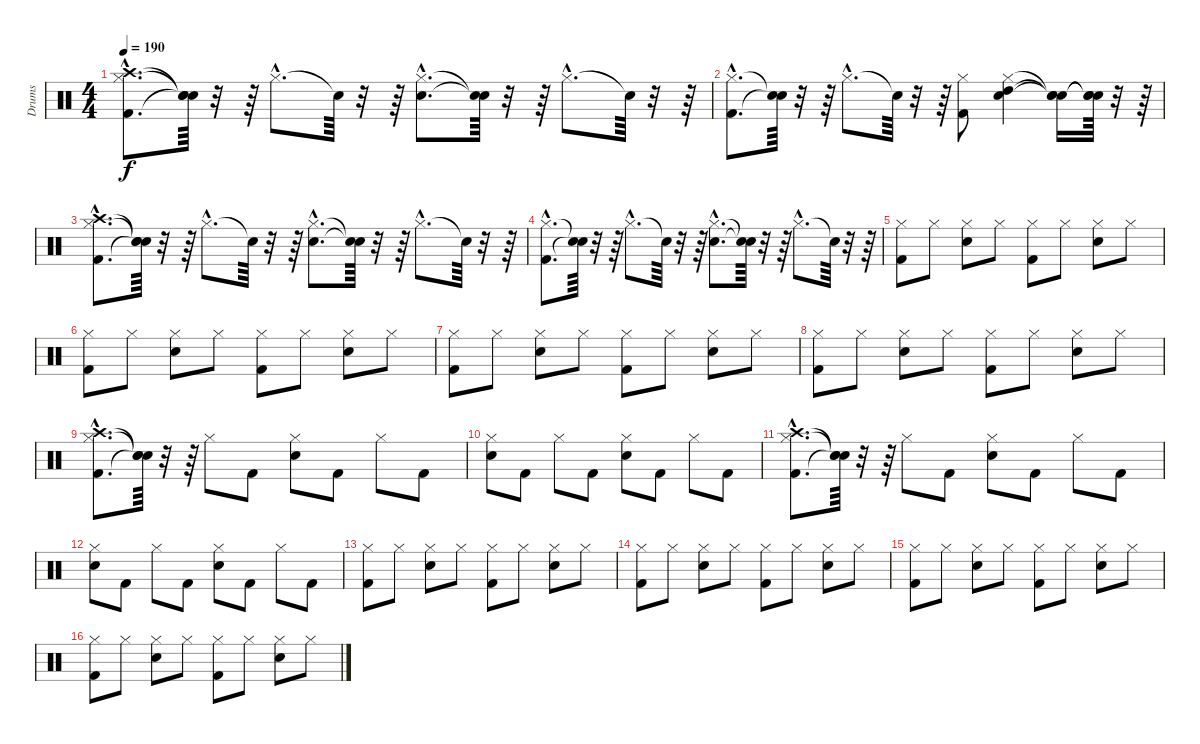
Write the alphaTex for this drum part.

\track ("Drums" "Drums") {instrument percussion}
\staff {score}
\articulation defaults
\ts (4 4)
\tempo 190
\clef neutral
\ks c
("Kick (hit) 2"{hac} "Hi-Hat (closed)"{hac} "Crash high (hit)"{hac}).8{d dy f} ("Snare (hit)"{t} "Snare (hit)"{t} "Snare (hit)"{t}).64 r.32 r.64 "Hi-Hat (closed)"{hac}.8{d} "Snare (hit)"{t}.64 r.32 r.64 ("Snare (hit) 2"{hac} "Hi-Hat (closed)"{hac}).8{d} ("Snare (hit)"{t} "Snare (hit)"{t}).64 r.32 r.64 "Hi-Hat (closed)"{hac}.8{d} "Snare (hit)"{t}.64 r.32 r.64 |
("Kick (hit) 2"{hac} "Hi-Hat (closed)"{hac}).8{d} ("Snare (hit)"{t} "Snare (hit)"{t}).64 r.32 r.64 "Hi-Hat (closed)"{hac}.8{d} "Snare (hit)"{t}.64 r.32 r.64 ("Kick (hit) 2" "Hi-Hat (closed)").8 ("Snare (hit) 2" "Hi-Hat (closed)" "High Tom (hit)").4 ("Snare (hit)"{t} "Snare (hit)"{t} "Snare (hit)"{t}).16 ("Snare (hit)"{t} "Snare (hit)"{t} "Snare (hit)"{t}).64 r.32 r.64 |
("Kick (hit) 2"{hac} "Hi-Hat (closed)"{hac} "Crash high (hit)"{hac}).8{d} ("Snare (hit)"{t} "Snare (hit)"{t} "Snare (hit)"{t}).64 r.32 r.64 "Hi-Hat (closed)"{hac}.8{d} "Snare (hit)"{t}.64 r.32 r.64 ("Snare (hit) 2"{hac} "Hi-Hat (closed)"{hac}).8{d} ("Snare (hit)"{t} "Snare (hit)"{t}).64 r.32 r.64 "Hi-Hat (closed)"{hac}.8{d} "Snare (hit)"{t}.64 r.32 r.64 |
("Kick (hit) 2"{hac} "Hi-Hat (closed)"{hac}).8{d} ("Snare (hit)"{t} "Snare (hit)"{t}).64 r.32 r.64 "Hi-Hat (closed)"{hac}.8{d} "Snare (hit)"{t}.64 r.32 r.64 ("Snare (hit) 2"{hac} "Hi-Hat (closed)"{hac}).8{d} ("Snare (hit)"{t} "Snare (hit)"{t}).64 r.32 r.64 "Hi-Hat (closed)"{hac}.8{d} "Snare (hit)"{t}.64 r.32 r.64 |
("Kick (hit) 2" "Hi-Hat (closed)").8 "Hi-Hat (closed)".8 ("Snare (hit) 2" "Hi-Hat (closed)").8 "Hi-Hat (closed)".8 ("Kick (hit) 2" "Hi-Hat (closed)").8 "Hi-Hat (closed)".8 ("Snare (hit) 2" "Hi-Hat (closed)").8 "Hi-Hat (closed)".8 |
("Kick (hit) 2" "Hi-Hat (closed)").8 "Hi-Hat (closed)".8 ("Snare (hit) 2" "Hi-Hat (closed)").8 "Hi-Hat (closed)".8 ("Kick (hit) 2" "Hi-Hat (closed)").8 "Hi-Hat (closed)".8 ("Snare (hit) 2" "Hi-Hat (closed)").8 "Hi-Hat (closed)".8 |
("Kick (hit) 2" "Hi-Hat (closed)").8 "Hi-Hat (closed)".8 ("Snare (hit) 2" "Hi-Hat (closed)").8 "Hi-Hat (closed)".8 ("Kick (hit) 2" "Hi-Hat (closed)").8 "Hi-Hat (closed)".8 ("Snare (hit) 2" "Hi-Hat (closed)").8 "Hi-Hat (closed)".8 |
("Kick (hit) 2" "Hi-Hat (closed)").8 "Hi-Hat (closed)".8 ("Snare (hit) 2" "Hi-Hat (closed)").8 "Hi-Hat (closed)".8 ("Kick (hit) 2" "Hi-Hat (closed)").8 "Hi-Hat (closed)".8 ("Snare (hit) 2" "Hi-Hat (closed)").8 "Hi-Hat (closed)".8 |
("Kick (hit) 2"{hac} "Hi-Hat (closed)"{hac} "Crash high (hit)"{hac}).8{d} ("Snare (hit)"{t} "Snare (hit)"{t} "Snare (hit)"{t}).64 r.32 r.64 "Hi-Hat (closed)".8 "Kick (hit) 2".8 ("Snare (hit) 2" "Hi-Hat (closed)").8 "Kick (hit) 2".8 "Hi-Hat (closed)".8 "Kick (hit) 2".8 |
("Snare (hit) 2" "Hi-Hat (closed)").8 "Kick (hit) 2".8 "Hi-Hat (closed)".8 "Kick (hit) 2".8 ("Snare (hit) 2" "Hi-Hat (closed)").8 "Kick (hit) 2".8 "Hi-Hat (closed)".8 "Kick (hit) 2".8 |
("Kick (hit) 2"{hac} "Hi-Hat (closed)"{hac} "Crash high (hit)"{hac}).8{d} ("Snare (hit)"{t} "Snare (hit)"{t} "Snare (hit)"{t}).64 r.32 r.64 "Hi-Hat (closed)".8 "Kick (hit) 2".8 ("Snare (hit) 2" "Hi-Hat (closed)").8 "Kick (hit) 2".8 "Hi-Hat (closed)".8 "Kick (hit) 2".8 |
("Snare (hit) 2" "Hi-Hat (closed)").8 "Kick (hit) 2".8 "Hi-Hat (closed)".8 "Kick (hit) 2".8 ("Snare (hit) 2" "Hi-Hat (closed)").8 "Kick (hit) 2".8 "Hi-Hat (closed)".8 "Kick (hit) 2".8 |
("Kick (hit) 2" "Hi-Hat (closed)").8 "Hi-Hat (closed)".8 ("Snare (hit) 2" "Hi-Hat (closed)").8 "Hi-Hat (closed)".8 ("Kick (hit) 2" "Hi-Hat (closed)").8 "Hi-Hat (closed)".8 ("Snare (hit) 2" "Hi-Hat (closed)").8 "Hi-Hat (closed)".8 |
("Kick (hit) 2" "Hi-Hat (closed)").8 "Hi-Hat (closed)".8 ("Snare (hit) 2" "Hi-Hat (closed)").8 "Hi-Hat (closed)".8 ("Kick (hit) 2" "Hi-Hat (closed)").8 "Hi-Hat (closed)".8 ("Snare (hit) 2" "Hi-Hat (closed)").8 "Hi-Hat (closed)".8 |
("Kick (hit) 2" "Hi-Hat (closed)").8 "Hi-Hat (closed)".8 ("Snare (hit) 2" "Hi-Hat (closed)").8 "Hi-Hat (closed)".8 ("Kick (hit) 2" "Hi-Hat (closed)").8 "Hi-Hat (closed)".8 ("Snare (hit) 2" "Hi-Hat (closed)").8 "Hi-Hat (closed)".8 |
("Kick (hit) 2" "Hi-Hat (closed)").8 "Hi-Hat (closed)".8 ("Snare (hit) 2" "Hi-Hat (closed)").8 "Hi-Hat (closed)".8 ("Kick (hit) 2" "Hi-Hat (closed)").8 "Hi-Hat (closed)".8 ("Snare (hit) 2" "Hi-Hat (closed)").8 "Hi-Hat (closed)".8
